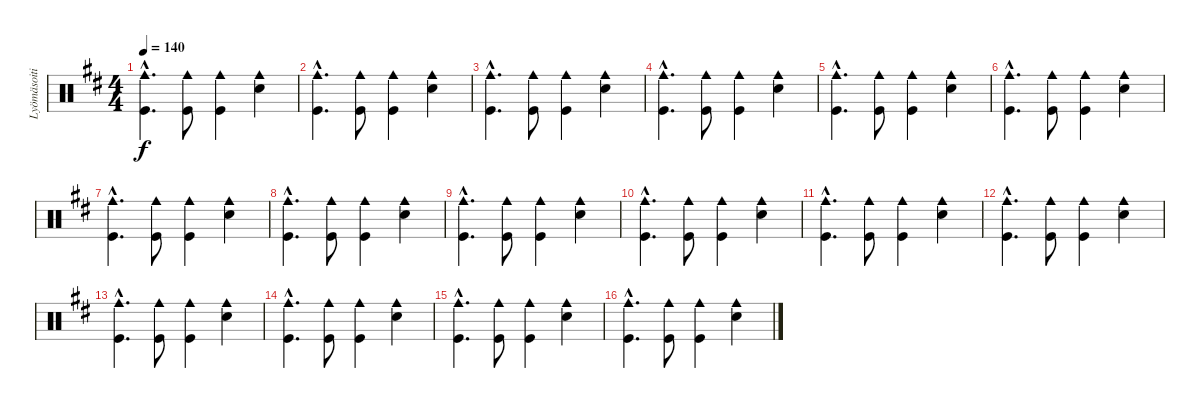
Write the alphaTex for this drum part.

\track ("Lyömäsoitin" "Lyömäsoiti") {instrument percussion}
\staff {score}
\articulation defaults
\ts (4 4)
\tempo 140
\clef neutral
\ks d
("Cowbell medium (hit)"{hac} "Kick (hit)"{hac}).4{d dy f} ("Cowbell medium (hit)" "Kick (hit)").8 ("Cowbell medium (hit)" "Kick (hit)").4 ("Cowbell medium (hit)" "Snare (hit) 2").4 |
("Cowbell medium (hit)"{hac} "Kick (hit)"{hac}).4{d} ("Cowbell medium (hit)" "Kick (hit)").8 ("Cowbell medium (hit)" "Kick (hit)").4 ("Cowbell medium (hit)" "Snare (hit) 2").4 |
("Cowbell medium (hit)"{hac} "Kick (hit)"{hac}).4{d} ("Cowbell medium (hit)" "Kick (hit)").8 ("Cowbell medium (hit)" "Kick (hit)").4 ("Cowbell medium (hit)" "Snare (hit) 2").4 |
("Cowbell medium (hit)"{hac} "Kick (hit)"{hac}).4{d} ("Cowbell medium (hit)" "Kick (hit)").8 ("Cowbell medium (hit)" "Kick (hit)").4 ("Cowbell medium (hit)" "Snare (hit) 2").4 |
("Cowbell medium (hit)"{hac} "Kick (hit)"{hac}).4{d} ("Cowbell medium (hit)" "Kick (hit)").8 ("Cowbell medium (hit)" "Kick (hit)").4 ("Cowbell medium (hit)" "Snare (hit) 2").4 |
("Cowbell medium (hit)"{hac} "Kick (hit)"{hac}).4{d} ("Cowbell medium (hit)" "Kick (hit)").8 ("Cowbell medium (hit)" "Kick (hit)").4 ("Cowbell medium (hit)" "Snare (hit) 2").4 |
("Cowbell medium (hit)"{hac} "Kick (hit)"{hac}).4{d} ("Cowbell medium (hit)" "Kick (hit)").8 ("Cowbell medium (hit)" "Kick (hit)").4 ("Cowbell medium (hit)" "Snare (hit) 2").4 |
("Cowbell medium (hit)"{hac} "Kick (hit)"{hac}).4{d} ("Cowbell medium (hit)" "Kick (hit)").8 ("Cowbell medium (hit)" "Kick (hit)").4 ("Cowbell medium (hit)" "Snare (hit) 2").4 |
("Cowbell medium (hit)"{hac} "Kick (hit)"{hac}).4{d} ("Cowbell medium (hit)" "Kick (hit)").8 ("Cowbell medium (hit)" "Kick (hit)").4 ("Cowbell medium (hit)" "Snare (hit) 2").4 |
("Cowbell medium (hit)"{hac} "Kick (hit)"{hac}).4{d} ("Cowbell medium (hit)" "Kick (hit)").8 ("Cowbell medium (hit)" "Kick (hit)").4 ("Cowbell medium (hit)" "Snare (hit) 2").4 |
("Cowbell medium (hit)"{hac} "Kick (hit)"{hac}).4{d} ("Cowbell medium (hit)" "Kick (hit)").8 ("Cowbell medium (hit)" "Kick (hit)").4 ("Cowbell medium (hit)" "Snare (hit) 2").4 |
("Cowbell medium (hit)"{hac} "Kick (hit)"{hac}).4{d} ("Cowbell medium (hit)" "Kick (hit)").8 ("Cowbell medium (hit)" "Kick (hit)").4 ("Cowbell medium (hit)" "Snare (hit) 2").4 |
("Cowbell medium (hit)"{hac} "Kick (hit)"{hac}).4{d} ("Cowbell medium (hit)" "Kick (hit)").8 ("Cowbell medium (hit)" "Kick (hit)").4 ("Cowbell medium (hit)" "Snare (hit) 2").4 |
("Cowbell medium (hit)"{hac} "Kick (hit)"{hac}).4{d} ("Cowbell medium (hit)" "Kick (hit)").8 ("Cowbell medium (hit)" "Kick (hit)").4 ("Cowbell medium (hit)" "Snare (hit) 2").4 |
("Cowbell medium (hit)"{hac} "Kick (hit)"{hac}).4{d} ("Cowbell medium (hit)" "Kick (hit)").8 ("Cowbell medium (hit)" "Kick (hit)").4 ("Cowbell medium (hit)" "Snare (hit) 2").4 |
("Cowbell medium (hit)"{hac} "Kick (hit)"{hac}).4{d} ("Cowbell medium (hit)" "Kick (hit)").8 ("Cowbell medium (hit)" "Kick (hit)").4 ("Cowbell medium (hit)" "Snare (hit) 2").4
